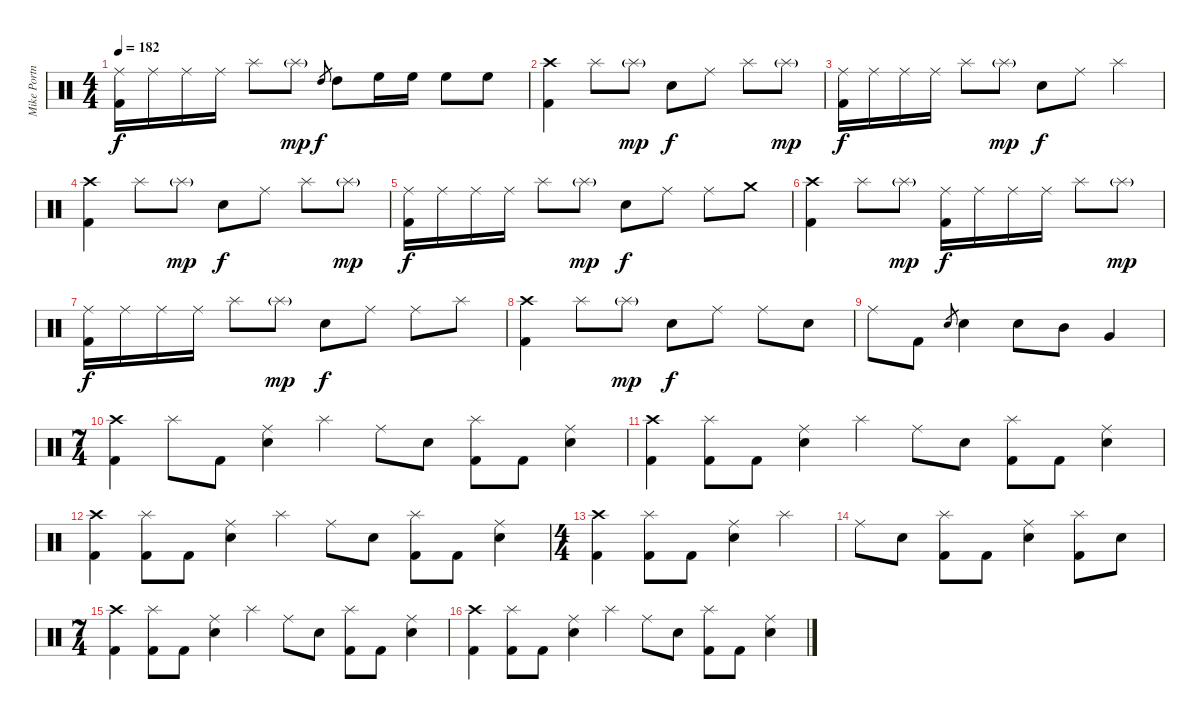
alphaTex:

\track ("Mike Portnoy" "Mike Portn") {instrument percussion}
\staff {score}
\articulation defaults
\ts (4 4)
\tempo 182
\clef neutral
\ks c
("Ride (middle)" "Kick (hit) 2").16{dy f} "Ride (middle)".16 "Ride (middle)".16 "Ride (middle)".16 "Splash (hit)".8 "Splash (hit)"{g}.8{dy mp} "High Tom (hit)".8{gr dy f} "High Tom (hit)".8 "High Floor Tom (hit)".16 "High Floor Tom (hit)".16 "High Floor Tom (hit)".8 "High Floor Tom (hit)".8 |
("Crash high (hit)" "Kick (hit) 2").4 "Splash (hit)".8 "Splash (hit)"{g}.8{dy mp} "Electric Snare (hit)".8{dy f} "Ride (middle)".8 "Splash (hit)".8 "Splash (hit)"{g}.8{dy mp} |
("Ride (middle)" "Kick (hit) 2").16{dy f} "Ride (middle)".16 "Ride (middle)".16 "Ride (middle)".16 "Splash (hit)".8 "Splash (hit)"{g}.8{dy mp} "Electric Snare (hit)".8{dy f} "Ride (middle)".8 "Splash (hit)".4 |
("Crash high (hit)" "Kick (hit) 2").4 "Splash (hit)".8 "Splash (hit)"{g}.8{dy mp} "Electric Snare (hit)".8{dy f} "Ride (middle)".8 "Splash (hit)".8 "Splash (hit)"{g}.8{dy mp} |
("Ride (middle)" "Kick (hit) 2").16{dy f} "Ride (middle)".16 "Ride (middle)".16 "Ride (middle)".16 "Splash (hit)".8 "Splash (hit)"{g}.8{dy mp} "Electric Snare (hit)".8{dy f} "Ride (middle)".8 "Ride (middle)".8 "Crash medium (hit)".8 |
("Crash high (hit)" "Kick (hit) 2").4 "Splash (hit)".8 "Splash (hit)"{g}.8{dy mp} ("Ride (middle)" "Kick (hit) 2").16{dy f} "Ride (middle)".16 "Ride (middle)".16 "Ride (middle)".16 "Splash (hit)".8 "Splash (hit)"{g}.8{dy mp} |
("Ride (middle)" "Kick (hit) 2").16{dy f} "Ride (middle)".16 "Ride (middle)".16 "Ride (middle)".16 "Splash (hit)".8 "Splash (hit)"{g}.8{dy mp} "Electric Snare (hit)".8{dy f} "Ride (middle)".8 "Ride (middle)".8 "Splash (hit)".8 |
("Crash high (hit)" "Kick (hit) 2").4 "Splash (hit)".8 "Splash (hit)"{g}.8{dy mp} "Electric Snare (hit)".8{dy f} "Ride (middle)".8 "Ride (middle)".8 "Electric Snare (hit)".8 |
"Ride (middle)".8 "Kick (hit) 2".8 "Electric Snare (hit)".8{gr} "Electric Snare (hit)".4 "Electric Snare (hit)".8 "Mid Tom (hit)".8 "Very Low Tom (hit)".4 |
\ts (7 4)
("Crash high (hit)" "Kick (hit) 2").4 "Splash (hit)".8 "Kick (hit) 2".8 ("Ride (middle)" "Electric Snare (hit)").4 "Splash (hit)".4 "Ride (middle)".8 "Electric Snare (hit)".8 ("Splash (hit)" "Kick (hit) 2").8 "Kick (hit) 2".8 ("Ride (middle)" "Electric Snare (hit)").4 |
("Crash high (hit)" "Kick (hit) 2").4 ("Splash (hit)" "Kick (hit) 2").8 "Kick (hit) 2".8 ("Ride (middle)" "Electric Snare (hit)").4 "Splash (hit)".4 "Ride (middle)".8 "Electric Snare (hit)".8 ("Splash (hit)" "Kick (hit) 2").8 "Kick (hit) 2".8 ("Ride (middle)" "Electric Snare (hit)").4 |
("Crash high (hit)" "Kick (hit) 2").4 ("Splash (hit)" "Kick (hit) 2").8 "Kick (hit) 2".8 ("Ride (middle)" "Electric Snare (hit)").4 "Splash (hit)".4 "Ride (middle)".8 "Electric Snare (hit)".8 ("Splash (hit)" "Kick (hit) 2").8 "Kick (hit) 2".8 ("Ride (middle)" "Electric Snare (hit)").4 |
\ts (4 4)
("Crash high (hit)" "Kick (hit) 2").4 ("Splash (hit)" "Kick (hit) 2").8 "Kick (hit) 2".8 ("Ride (middle)" "Electric Snare (hit)").4 "Splash (hit)".4 |
"Ride (middle)".8 "Electric Snare (hit)".8 ("Splash (hit)" "Kick (hit) 2").8 "Kick (hit) 2".8 ("Ride (middle)" "Electric Snare (hit)").4 ("Splash (hit)" "Kick (hit) 2").8 "Electric Snare (hit)".8 |
\ts (7 4)
("Crash high (hit)" "Kick (hit) 2").4 ("Splash (hit)" "Kick (hit) 2").8 "Kick (hit) 2".8 ("Ride (middle)" "Electric Snare (hit)").4 "Splash (hit)".4 "Ride (middle)".8 "Electric Snare (hit)".8 ("Splash (hit)" "Kick (hit) 2").8 "Kick (hit) 2".8 ("Ride (middle)" "Electric Snare (hit)").4 |
("Crash high (hit)" "Kick (hit) 2").4 ("Splash (hit)" "Kick (hit) 2").8 "Kick (hit) 2".8 ("Ride (middle)" "Electric Snare (hit)").4 "Splash (hit)".4 "Ride (middle)".8 "Electric Snare (hit)".8 ("Splash (hit)" "Kick (hit) 2").8 "Kick (hit) 2".8 ("Ride (middle)" "Electric Snare (hit)").4
